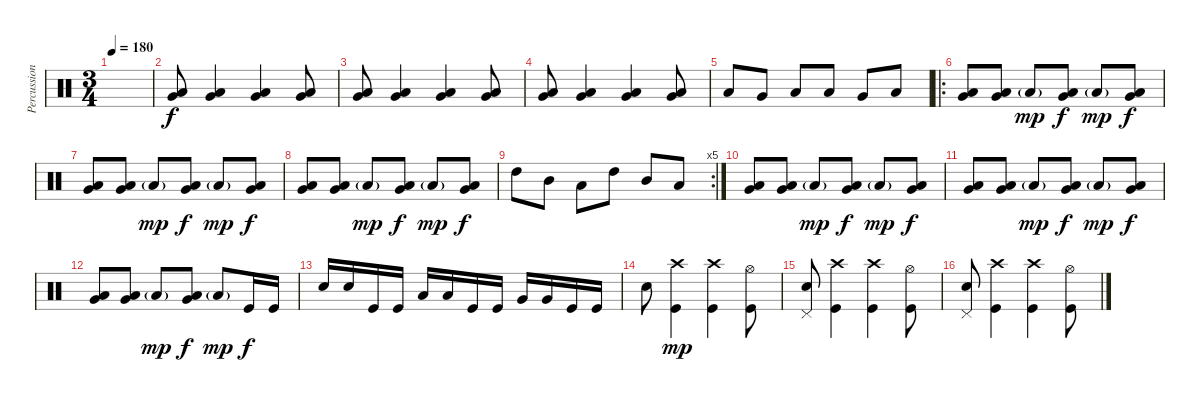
\track ("Percussion" "Percussion") {instrument percussion}
\staff {score}
\articulation defaults
\ts (3 4)
\tempo 180
\clef neutral
\ks c
|
("Very Low Tom (hit)" "Low Floor Tom (hit)").8 ("Very Low Tom (hit)" "Low Floor Tom (hit)").4 ("Very Low Tom (hit)" "Low Floor Tom (hit)").4 ("Very Low Tom (hit)" "Low Floor Tom (hit)").8 |
("Very Low Tom (hit)" "Low Floor Tom (hit)").8 ("Very Low Tom (hit)" "Low Floor Tom (hit)").4 ("Very Low Tom (hit)" "Low Floor Tom (hit)").4 ("Very Low Tom (hit)" "Low Floor Tom (hit)").8 |
("Very Low Tom (hit)" "Low Floor Tom (hit)").8 ("Very Low Tom (hit)" "Low Floor Tom (hit)").4 ("Very Low Tom (hit)" "Low Floor Tom (hit)").4 ("Very Low Tom (hit)" "Low Floor Tom (hit)").8 |
"Low Tom (hit)".8 "Very Low Tom (hit)".8 "Low Floor Tom (hit)".8 "Low Tom (hit)".8 "Very Low Tom (hit)".8 "Low Floor Tom (hit)".8 |
\ro
("Very Low Tom (hit)" "Low Floor Tom (hit)").8 ("Very Low Tom (hit)" "Low Floor Tom (hit)").8 "Low Floor Tom (hit)"{g}.8{dy mp} ("Very Low Tom (hit)" "Low Floor Tom (hit)").8{dy f} "Low Floor Tom (hit)"{g}.8{dy mp} ("Very Low Tom (hit)" "Low Floor Tom (hit)").8{dy f} |
("Very Low Tom (hit)" "Low Floor Tom (hit)").8 ("Very Low Tom (hit)" "Low Floor Tom (hit)").8 "Low Floor Tom (hit)"{g}.8{dy mp} ("Very Low Tom (hit)" "Low Floor Tom (hit)").8{dy f} "Low Floor Tom (hit)"{g}.8{dy mp} ("Very Low Tom (hit)" "Low Floor Tom (hit)").8{dy f} |
("Very Low Tom (hit)" "Low Floor Tom (hit)").8 ("Very Low Tom (hit)" "Low Floor Tom (hit)").8 "Low Floor Tom (hit)"{g}.8{dy mp} ("Very Low Tom (hit)" "Low Floor Tom (hit)").8{dy f} "Low Floor Tom (hit)"{g}.8{dy mp} ("Very Low Tom (hit)" "Low Floor Tom (hit)").8{dy f} |
\rc 5 "High Tom (hit)".8 "Mid Tom (hit)".8 "Low Tom (hit)".8 "High Tom (hit)".8 "Mid Tom (hit)".8 "Low Tom (hit)".8
|
("Very Low Tom (hit)" "Low Floor Tom (hit)").8 ("Very Low Tom (hit)" "Low Floor Tom (hit)").8 "Low Floor Tom (hit)"{g}.8{dy mp} ("Very Low Tom (hit)" "Low Floor Tom (hit)").8{dy f} "Low Floor Tom (hit)"{g}.8{dy mp} ("Very Low Tom (hit)" "Low Floor Tom (hit)").8{dy f} |
("Very Low Tom (hit)" "Low Floor Tom (hit)").8 ("Very Low Tom (hit)" "Low Floor Tom (hit)").8 "Low Floor Tom (hit)"{g}.8{dy mp} ("Very Low Tom (hit)" "Low Floor Tom (hit)").8{dy f} "Low Floor Tom (hit)"{g}.8{dy mp} ("Very Low Tom (hit)" "Low Floor Tom (hit)").8{dy f} |
("Very Low Tom (hit)" "Low Floor Tom (hit)").8 ("Very Low Tom (hit)" "Low Floor Tom (hit)").8 "Low Floor Tom (hit)"{g}.8{dy mp} ("Very Low Tom (hit)" "Low Floor Tom (hit)").8{dy f} "Low Floor Tom (hit)"{g}.8{dy mp} "Kick (hit)".16{dy f} "Kick (hit)".16 |
"Electric Snare (hit)".16 "Electric Snare (hit)".16 "Kick (hit)".16 "Kick (hit)".16 "Low Tom (hit)".16 "Low Tom (hit)".16 "Kick (hit)".16 "Kick (hit)".16 "Very Low Tom (hit)".16 "Very Low Tom (hit)".16 "Kick (hit)".16 "Kick (hit)".16 |
"Electric Snare (hit)".8 ("Crash high (hit)" "Kick (hit)").4{dy mp} ("Crash high (hit)" "Kick (hit)").4 ("Hi-Hat (open)" "Kick (hit)").8 |
("Pedal Hi-Hat (hit)" "Electric Snare (hit)").8 ("Crash high (hit)" "Kick (hit)").4 ("Crash high (hit)" "Kick (hit)").4 ("Hi-Hat (open)" "Kick (hit)").8 |
("Pedal Hi-Hat (hit)" "Electric Snare (hit)").8 ("Crash high (hit)" "Kick (hit)").4 ("Crash high (hit)" "Kick (hit)").4 ("Hi-Hat (open)" "Kick (hit)").8
